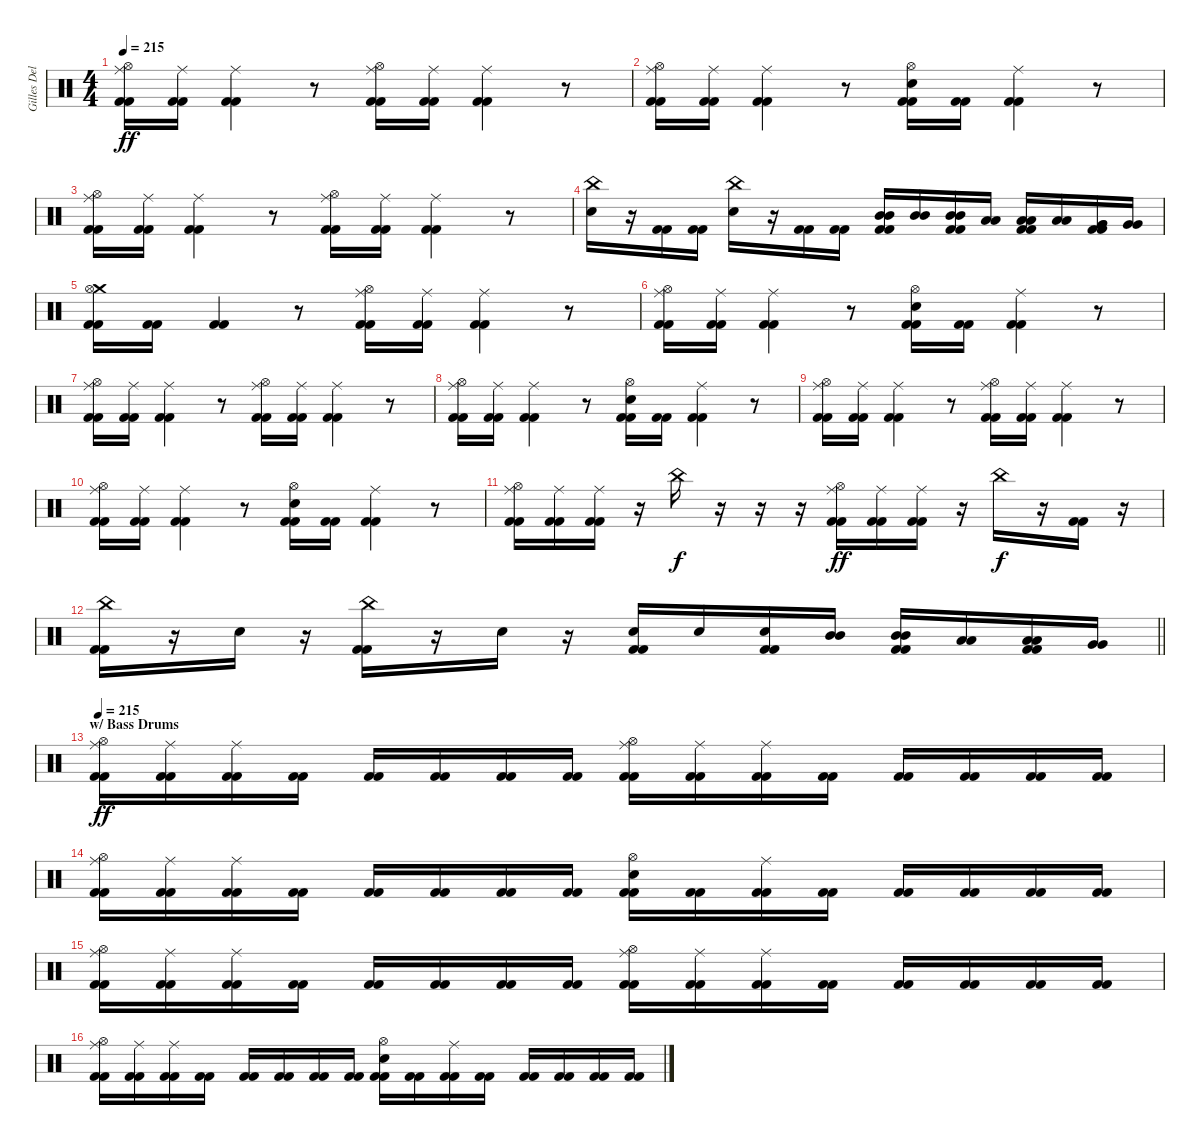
\track ("Gilles Delecroix" "Gilles Del") {instrument percussion}
\staff {score}
\articulation defaults
\ts (4 4)
\tempo 215
\clef neutral
\ks c
("Ride (middle)" "Hi-Hat (open)" "Kick (hit) 2" "Kick (hit) 2").16{dy ff} ("Ride (middle)" "Kick (hit) 2" "Kick (hit) 2").16 ("Ride (middle)" "Kick (hit) 2" "Kick (hit) 2").4 r.8 ("Ride (middle)" "Hi-Hat (open)" "Kick (hit) 2" "Kick (hit) 2").16 ("Ride (middle)" "Kick (hit) 2" "Kick (hit) 2").16 ("Ride (middle)" "Kick (hit) 2" "Kick (hit) 2").4 r.8 |
("Ride (middle)" "Hi-Hat (open)" "Kick (hit) 2" "Kick (hit) 2").16 ("Ride (middle)" "Kick (hit) 2" "Kick (hit) 2").16 ("Ride (middle)" "Kick (hit) 2" "Kick (hit) 2").4 r.8 ("Electric Snare (hit)" "Hi-Hat (open)" "Kick (hit) 2" "Kick (hit) 2").16 ("Kick (hit) 2" "Kick (hit) 2").16 ("Ride (middle)" "Kick (hit) 2" "Kick (hit) 2").4 r.8 |
("Ride (middle)" "Hi-Hat (open)" "Kick (hit) 2" "Kick (hit) 2").16 ("Ride (middle)" "Kick (hit) 2" "Kick (hit) 2").16 ("Ride (middle)" "Kick (hit) 2" "Kick (hit) 2").4 r.8 ("Ride (middle)" "Hi-Hat (open)" "Kick (hit) 2" "Kick (hit) 2").16 ("Ride (middle)" "Kick (hit) 2" "Kick (hit) 2").16 ("Ride (middle)" "Kick (hit) 2" "Kick (hit) 2").4 r.8 |
("China (hit)" "Electric Snare (hit)").16 r.16 ("Kick (hit) 2" "Kick (hit) 2").16 ("Kick (hit) 2" "Kick (hit) 2").16 ("China (hit)" "Electric Snare (hit)").16 r.16 ("Kick (hit) 2" "Kick (hit) 2").16 ("Kick (hit) 2" "Kick (hit) 2").16 ("Mid Tom (hit)" "Mid Tom (hit)" "Kick (hit) 2" "Kick (hit) 2").16 ("Mid Tom (hit)" "Mid Tom (hit)").16 ("Mid Tom (hit)" "Mid Tom (hit)" "Kick (hit) 2" "Kick (hit) 2").16 ("Low Tom (hit)" "Low Tom (hit)").16 ("Low Tom (hit)" "Low Tom (hit)" "Kick (hit) 2" "Kick (hit) 2").16 ("Low Tom (hit)" "Low Tom (hit)").16 ("Very Low Tom (hit)" "Very Low Tom (hit)" "Kick (hit) 2" "Kick (hit) 2").16 ("Very Low Tom (hit)" "Very Low Tom (hit)").16 |
("Crash medium (hit)" "Hi-Hat (open)" "Kick (hit) 2" "Kick (hit) 2").16 ("Kick (hit) 2" "Kick (hit) 2").16 ("Kick (hit) 2" "Kick (hit) 2").4 r.8 ("Ride (middle)" "Hi-Hat (open)" "Kick (hit) 2" "Kick (hit) 2").16 ("Ride (middle)" "Kick (hit) 2" "Kick (hit) 2").16 ("Ride (middle)" "Kick (hit) 2" "Kick (hit) 2").4 r.8 |
("Ride (middle)" "Hi-Hat (open)" "Kick (hit) 2" "Kick (hit) 2").16 ("Ride (middle)" "Kick (hit) 2" "Kick (hit) 2").16 ("Ride (middle)" "Kick (hit) 2" "Kick (hit) 2").4 r.8 ("Electric Snare (hit)" "Hi-Hat (open)" "Kick (hit) 2" "Kick (hit) 2").16 ("Kick (hit) 2" "Kick (hit) 2").16 ("Ride (middle)" "Kick (hit) 2" "Kick (hit) 2").4 r.8 |
("Ride (middle)" "Hi-Hat (open)" "Kick (hit) 2" "Kick (hit) 2").16 ("Ride (middle)" "Kick (hit) 2" "Kick (hit) 2").16 ("Ride (middle)" "Kick (hit) 2" "Kick (hit) 2").4 r.8 ("Ride (middle)" "Hi-Hat (open)" "Kick (hit) 2" "Kick (hit) 2").16 ("Ride (middle)" "Kick (hit) 2" "Kick (hit) 2").16 ("Ride (middle)" "Kick (hit) 2" "Kick (hit) 2").4 r.8 |
("Ride (middle)" "Hi-Hat (open)" "Kick (hit) 2" "Kick (hit) 2").16 ("Ride (middle)" "Kick (hit) 2" "Kick (hit) 2").16 ("Ride (middle)" "Kick (hit) 2" "Kick (hit) 2").4 r.8 ("Electric Snare (hit)" "Hi-Hat (open)" "Kick (hit) 2" "Kick (hit) 2").16 ("Kick (hit) 2" "Kick (hit) 2").16 ("Ride (middle)" "Kick (hit) 2" "Kick (hit) 2").4 r.8 |
("Ride (middle)" "Hi-Hat (open)" "Kick (hit) 2" "Kick (hit) 2").16 ("Ride (middle)" "Kick (hit) 2" "Kick (hit) 2").16 ("Ride (middle)" "Kick (hit) 2" "Kick (hit) 2").4 r.8 ("Ride (middle)" "Hi-Hat (open)" "Kick (hit) 2" "Kick (hit) 2").16 ("Ride (middle)" "Kick (hit) 2" "Kick (hit) 2").16 ("Ride (middle)" "Kick (hit) 2" "Kick (hit) 2").4 r.8 |
("Ride (middle)" "Hi-Hat (open)" "Kick (hit) 2" "Kick (hit) 2").16 ("Ride (middle)" "Kick (hit) 2" "Kick (hit) 2").16 ("Ride (middle)" "Kick (hit) 2" "Kick (hit) 2").4 r.8 ("Electric Snare (hit)" "Hi-Hat (open)" "Kick (hit) 2" "Kick (hit) 2").16 ("Kick (hit) 2" "Kick (hit) 2").16 ("Ride (middle)" "Kick (hit) 2" "Kick (hit) 2").4 r.8 |
("Ride (middle)" "Hi-Hat (open)" "Kick (hit) 2" "Kick (hit) 2").16 ("Ride (middle)" "Kick (hit) 2" "Kick (hit) 2").16 ("Ride (middle)" "Kick (hit) 2" "Kick (hit) 2").16 r.16 "China (hit)".16{dy f} r.16 r.16 r.16 ("Ride (middle)" "Hi-Hat (open)" "Kick (hit) 2" "Kick (hit) 2").16{dy ff} ("Ride (middle)" "Kick (hit) 2" "Kick (hit) 2").16 ("Ride (middle)" "Kick (hit) 2" "Kick (hit) 2").16 r.16 "China (hit)".16{dy f} r.16 ("Kick (hit) 2" "Kick (hit) 2").16 r.16 |
\barLineRight lightlight
("China (hit)" "Kick (hit) 2" "Kick (hit) 2").16 r.16 "Electric Snare (hit)".16 r.16 ("China (hit)" "Kick (hit) 2" "Kick (hit) 2").16 r.16 "Electric Snare (hit)".16 r.16 ("Electric Snare (hit)" "Kick (hit) 2" "Kick (hit) 2").16 "Electric Snare (hit)".16 ("Electric Snare (hit)" "Kick (hit) 2" "Kick (hit) 2").16 ("Mid Tom (hit)" "Mid Tom (hit)").16 ("Mid Tom (hit)" "Mid Tom (hit)" "Kick (hit) 2" "Kick (hit) 2").16 ("Low Tom (hit)" "Low Tom (hit)").16 ("Low Tom (hit)" "Low Tom (hit)" "Kick (hit) 2" "Kick (hit) 2").16 ("Very Low Tom (hit)" "Very Low Tom (hit)").16 |
\section ("" "w/ Bass Drums")
\tempo 215
("Ride (middle)" "Hi-Hat (open)" "Kick (hit) 2" "Kick (hit) 2").16{dy ff} ("Ride (middle)" "Kick (hit) 2" "Kick (hit) 2").16 ("Ride (middle)" "Kick (hit) 2" "Kick (hit) 2").16 ("Kick (hit) 2" "Kick (hit) 2").16 ("Kick (hit) 2" "Kick (hit) 2").16 ("Kick (hit) 2" "Kick (hit) 2").16 ("Kick (hit) 2" "Kick (hit) 2").16 ("Kick (hit) 2" "Kick (hit) 2").16 ("Ride (middle)" "Hi-Hat (open)" "Kick (hit) 2" "Kick (hit) 2").16 ("Ride (middle)" "Kick (hit) 2" "Kick (hit) 2").16 ("Ride (middle)" "Kick (hit) 2" "Kick (hit) 2").16 ("Kick (hit) 2" "Kick (hit) 2").16 ("Kick (hit) 2" "Kick (hit) 2").16 ("Kick (hit) 2" "Kick (hit) 2").16 ("Kick (hit) 2" "Kick (hit) 2").16 ("Kick (hit) 2" "Kick (hit) 2").16 |
("Ride (middle)" "Hi-Hat (open)" "Kick (hit) 2" "Kick (hit) 2").16 ("Ride (middle)" "Kick (hit) 2" "Kick (hit) 2").16 ("Ride (middle)" "Kick (hit) 2" "Kick (hit) 2").16 ("Kick (hit) 2" "Kick (hit) 2").16 ("Kick (hit) 2" "Kick (hit) 2").16 ("Kick (hit) 2" "Kick (hit) 2").16 ("Kick (hit) 2" "Kick (hit) 2").16 ("Kick (hit) 2" "Kick (hit) 2").16 ("Electric Snare (hit)" "Hi-Hat (open)" "Kick (hit) 2" "Kick (hit) 2").16 ("Kick (hit) 2" "Kick (hit) 2").16 ("Ride (middle)" "Kick (hit) 2" "Kick (hit) 2").16 ("Kick (hit) 2" "Kick (hit) 2").16 ("Kick (hit) 2" "Kick (hit) 2").16 ("Kick (hit) 2" "Kick (hit) 2").16 ("Kick (hit) 2" "Kick (hit) 2").16 ("Kick (hit) 2" "Kick (hit) 2").16 |
("Ride (middle)" "Hi-Hat (open)" "Kick (hit) 2" "Kick (hit) 2").16 ("Ride (middle)" "Kick (hit) 2" "Kick (hit) 2").16 ("Ride (middle)" "Kick (hit) 2" "Kick (hit) 2").16 ("Kick (hit) 2" "Kick (hit) 2").16 ("Kick (hit) 2" "Kick (hit) 2").16 ("Kick (hit) 2" "Kick (hit) 2").16 ("Kick (hit) 2" "Kick (hit) 2").16 ("Kick (hit) 2" "Kick (hit) 2").16 ("Ride (middle)" "Hi-Hat (open)" "Kick (hit) 2" "Kick (hit) 2").16 ("Ride (middle)" "Kick (hit) 2" "Kick (hit) 2").16 ("Ride (middle)" "Kick (hit) 2" "Kick (hit) 2").16 ("Kick (hit) 2" "Kick (hit) 2").16 ("Kick (hit) 2" "Kick (hit) 2").16 ("Kick (hit) 2" "Kick (hit) 2").16 ("Kick (hit) 2" "Kick (hit) 2").16 ("Kick (hit) 2" "Kick (hit) 2").16 |
("Ride (middle)" "Hi-Hat (open)" "Kick (hit) 2" "Kick (hit) 2").16 ("Ride (middle)" "Kick (hit) 2" "Kick (hit) 2").16 ("Ride (middle)" "Kick (hit) 2" "Kick (hit) 2").16 ("Kick (hit) 2" "Kick (hit) 2").16 ("Kick (hit) 2" "Kick (hit) 2").16 ("Kick (hit) 2" "Kick (hit) 2").16 ("Kick (hit) 2" "Kick (hit) 2").16 ("Kick (hit) 2" "Kick (hit) 2").16 ("Electric Snare (hit)" "Hi-Hat (open)" "Kick (hit) 2" "Kick (hit) 2").16 ("Kick (hit) 2" "Kick (hit) 2").16 ("Ride (middle)" "Kick (hit) 2" "Kick (hit) 2").16 ("Kick (hit) 2" "Kick (hit) 2").16 ("Kick (hit) 2" "Kick (hit) 2").16 ("Kick (hit) 2" "Kick (hit) 2").16 ("Kick (hit) 2" "Kick (hit) 2").16 ("Kick (hit) 2" "Kick (hit) 2").16
